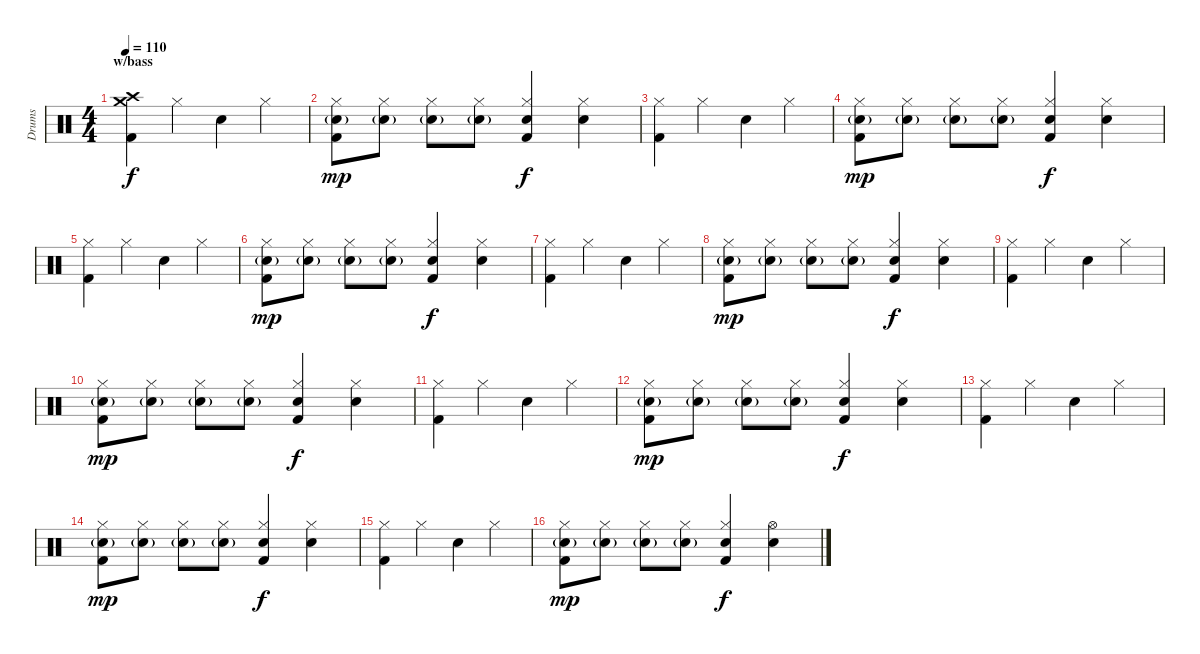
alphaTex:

\track ("Drums" "Drums") {instrument percussion}
\staff {score}
\articulation defaults
\ts (4 4)
\section ("" "w/bass")
\tempo 110
\clef neutral
\ks c
("Crash medium (hit)" "Crash high (hit)" "Kick (hit) 2").4{dy f} "Hi-Hat (closed)".4 "Snare (hit) 2".4 "Hi-Hat (closed)".4 |
("Hi-Hat (closed)" "Snare (hit) 2"{g} "Kick (hit) 2").8{dy mp} ("Hi-Hat (closed)" "Snare (hit) 2"{g}).8 ("Hi-Hat (closed)" "Snare (hit) 2"{g}).8 ("Hi-Hat (closed)" "Snare (hit) 2"{g}).8 ("Hi-Hat (closed)" "Snare (hit) 2" "Kick (hit) 2").4{dy f} ("Hi-Hat (closed)" "Snare (hit) 2").4 |
("Hi-Hat (closed)" "Kick (hit) 2").4 "Hi-Hat (closed)".4 "Snare (hit) 2".4 "Hi-Hat (closed)".4 |
("Hi-Hat (closed)" "Snare (hit) 2"{g} "Kick (hit) 2").8{dy mp} ("Hi-Hat (closed)" "Snare (hit) 2"{g}).8 ("Hi-Hat (closed)" "Snare (hit) 2"{g}).8 ("Hi-Hat (closed)" "Snare (hit) 2"{g}).8 ("Hi-Hat (closed)" "Snare (hit) 2" "Kick (hit) 2").4{dy f} ("Hi-Hat (closed)" "Snare (hit) 2").4 |
("Hi-Hat (closed)" "Kick (hit) 2").4 "Hi-Hat (closed)".4 "Snare (hit) 2".4 "Hi-Hat (closed)".4 |
("Hi-Hat (closed)" "Snare (hit) 2"{g} "Kick (hit) 2").8{dy mp} ("Hi-Hat (closed)" "Snare (hit) 2"{g}).8 ("Hi-Hat (closed)" "Snare (hit) 2"{g}).8 ("Hi-Hat (closed)" "Snare (hit) 2"{g}).8 ("Hi-Hat (closed)" "Snare (hit) 2" "Kick (hit) 2").4{dy f} ("Hi-Hat (closed)" "Snare (hit) 2").4 |
("Hi-Hat (closed)" "Kick (hit) 2").4 "Hi-Hat (closed)".4 "Snare (hit) 2".4 "Hi-Hat (closed)".4 |
("Hi-Hat (closed)" "Snare (hit) 2"{g} "Kick (hit) 2").8{dy mp} ("Hi-Hat (closed)" "Snare (hit) 2"{g}).8 ("Hi-Hat (closed)" "Snare (hit) 2"{g}).8 ("Hi-Hat (closed)" "Snare (hit) 2"{g}).8 ("Hi-Hat (closed)" "Snare (hit) 2" "Kick (hit) 2").4{dy f} ("Hi-Hat (closed)" "Snare (hit) 2").4 |
("Hi-Hat (closed)" "Kick (hit) 2").4 "Hi-Hat (closed)".4 "Snare (hit) 2".4 "Hi-Hat (closed)".4 |
("Hi-Hat (closed)" "Snare (hit) 2"{g} "Kick (hit) 2").8{dy mp} ("Hi-Hat (closed)" "Snare (hit) 2"{g}).8 ("Hi-Hat (closed)" "Snare (hit) 2"{g}).8 ("Hi-Hat (closed)" "Snare (hit) 2"{g}).8 ("Hi-Hat (closed)" "Snare (hit) 2" "Kick (hit) 2").4{dy f} ("Hi-Hat (closed)" "Snare (hit) 2").4 |
("Hi-Hat (closed)" "Kick (hit) 2").4 "Hi-Hat (closed)".4 "Snare (hit) 2".4 "Hi-Hat (closed)".4 |
("Hi-Hat (closed)" "Snare (hit) 2"{g} "Kick (hit) 2").8{dy mp} ("Hi-Hat (closed)" "Snare (hit) 2"{g}).8 ("Hi-Hat (closed)" "Snare (hit) 2"{g}).8 ("Hi-Hat (closed)" "Snare (hit) 2"{g}).8 ("Hi-Hat (closed)" "Snare (hit) 2" "Kick (hit) 2").4{dy f} ("Hi-Hat (closed)" "Snare (hit) 2").4 |
("Hi-Hat (closed)" "Kick (hit) 2").4 "Hi-Hat (closed)".4 "Snare (hit) 2".4 "Hi-Hat (closed)".4 |
("Hi-Hat (closed)" "Snare (hit) 2"{g} "Kick (hit) 2").8{dy mp} ("Hi-Hat (closed)" "Snare (hit) 2"{g}).8 ("Hi-Hat (closed)" "Snare (hit) 2"{g}).8 ("Hi-Hat (closed)" "Snare (hit) 2"{g}).8 ("Hi-Hat (closed)" "Snare (hit) 2" "Kick (hit) 2").4{dy f} ("Hi-Hat (closed)" "Snare (hit) 2").4 |
("Hi-Hat (closed)" "Kick (hit) 2").4 "Hi-Hat (closed)".4 "Snare (hit) 2".4 "Hi-Hat (closed)".4 |
("Hi-Hat (closed)" "Snare (hit) 2"{g} "Kick (hit) 2").8{dy mp} ("Hi-Hat (closed)" "Snare (hit) 2"{g}).8 ("Hi-Hat (closed)" "Snare (hit) 2"{g}).8 ("Hi-Hat (closed)" "Snare (hit) 2"{g}).8 ("Hi-Hat (closed)" "Snare (hit) 2" "Kick (hit) 2").4{dy f} ("Hi-Hat (open)" "Snare (hit) 2").4
